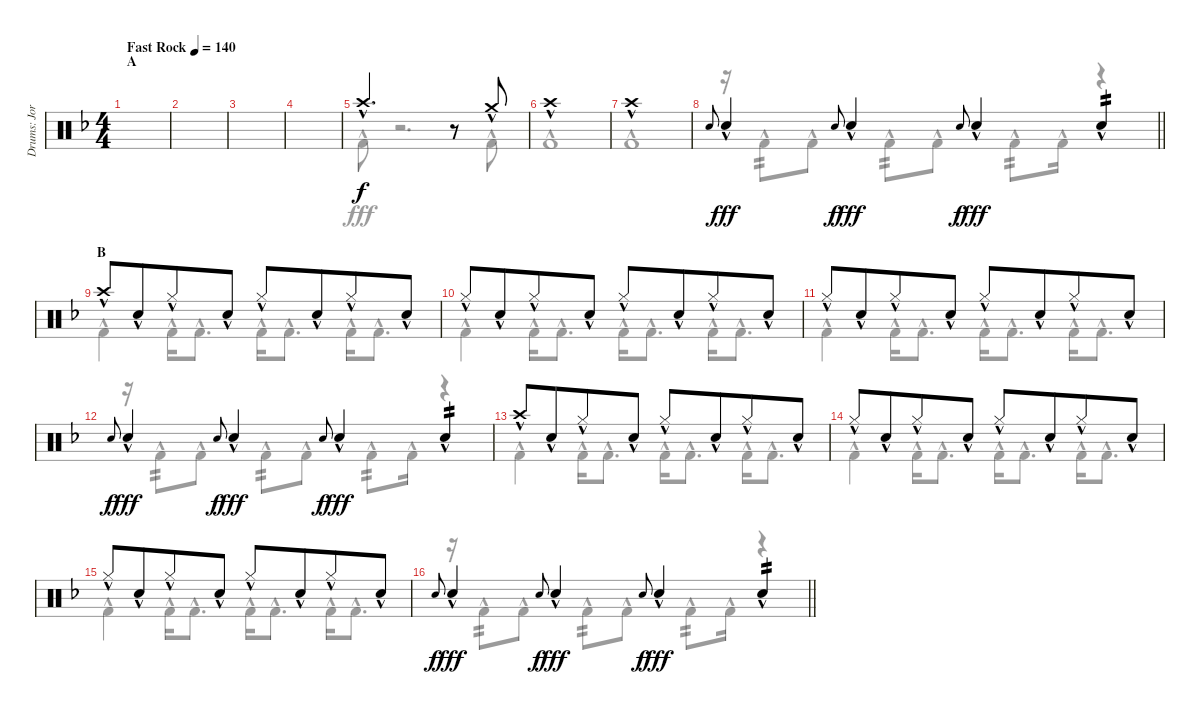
\track ("Drums: Jorg" "Drums: Jor") {instrument percussion}
\staff {score}
\articulation defaults
\voice
\ts (4 4)
\section ("" "A")
\tempo (140 "Fast Rock")
\clef neutral
\ks f
|
|
|
|
"Crash high (hit)"{hac}.2{d} r.8 "Crash medium (hit)"{hac}.8 |
"Crash high (hit)"{hac}.1 |
"Crash high (hit)"{hac}.1 |
\barLineRight lightlight "Snare (hit) 2".8{gr onbeat dy f} "Electric Snare (hit)"{hac}.4{dy fff} "Snare (hit) 2".8{gr onbeat dy f} "Electric Snare (hit)"{hac}.4{dy fff} "Snare (hit) 2".8{gr onbeat dy f} "Electric Snare (hit)"{hac}.4{dy fff} "Snare (hit) 2"{hac}.4{tp 2}
|
\section ("" "B")
"Crash high (hit)"{hac}.8 "Snare (hit) 2"{hac}.8{beam merge} "Hi-Hat (closed)"{hac}.8 "Snare (hit) 2"{hac}.8 "Hi-Hat (closed)"{hac}.8 "Snare (hit) 2"{hac}.8{beam merge} "Hi-Hat (closed)"{hac}.8 "Snare (hit) 2"{hac}.8 |
"Hi-Hat (closed)"{hac}.8 "Snare (hit) 2"{hac}.8{beam merge} "Hi-Hat (closed)"{hac}.8 "Snare (hit) 2"{hac}.8 "Hi-Hat (closed)"{hac}.8 "Snare (hit) 2"{hac}.8{beam merge} "Hi-Hat (closed)"{hac}.8 "Snare (hit) 2"{hac}.8 |
"Hi-Hat (closed)"{hac}.8 "Snare (hit) 2"{hac}.8{beam merge} "Hi-Hat (closed)"{hac}.8 "Snare (hit) 2"{hac}.8 "Hi-Hat (closed)"{hac}.8 "Snare (hit) 2"{hac}.8{beam merge} "Hi-Hat (closed)"{hac}.8 "Snare (hit) 2"{hac}.8 |
"Snare (hit) 2".8{gr onbeat dy f} "Electric Snare (hit)"{hac}.4{dy fff} "Snare (hit) 2".8{gr onbeat dy f} "Electric Snare (hit)"{hac}.4{dy fff} "Snare (hit) 2".8{gr onbeat dy f} "Electric Snare (hit)"{hac}.4{dy fff} "Snare (hit) 2"{hac}.4{tp 2} |
"Crash high (hit)"{hac}.8 "Snare (hit) 2"{hac}.8{beam merge} "Hi-Hat (closed)"{hac}.8 "Snare (hit) 2"{hac}.8 "Hi-Hat (closed)"{hac}.8 "Snare (hit) 2"{hac}.8{beam merge} "Hi-Hat (closed)"{hac}.8 "Snare (hit) 2"{hac}.8 |
"Hi-Hat (closed)"{hac}.8 "Snare (hit) 2"{hac}.8{beam merge} "Hi-Hat (closed)"{hac}.8 "Snare (hit) 2"{hac}.8 "Hi-Hat (closed)"{hac}.8 "Snare (hit) 2"{hac}.8{beam merge} "Hi-Hat (closed)"{hac}.8 "Snare (hit) 2"{hac}.8 |
"Hi-Hat (closed)"{hac}.8 "Snare (hit) 2"{hac}.8{beam merge} "Hi-Hat (closed)"{hac}.8 "Snare (hit) 2"{hac}.8 "Hi-Hat (closed)"{hac}.8 "Snare (hit) 2"{hac}.8{beam merge} "Hi-Hat (closed)"{hac}.8 "Snare (hit) 2"{hac}.8 |
\barLineRight lightlight "Snare (hit) 2".8{gr onbeat dy f} "Electric Snare (hit)"{hac}.4{dy fff} "Snare (hit) 2".8{gr onbeat dy f} "Electric Snare (hit)"{hac}.4{dy fff} "Snare (hit) 2".8{gr onbeat dy f} "Electric Snare (hit)"{hac}.4{dy fff} "Snare (hit) 2"{hac}.4{tp 2}
\voice
\clef neutral
\ottava regular
\simile none
\ks f
|
|
|
|
"Kick (hit) 2"{hac}.8 r.2{d} "Kick (hit) 2"{hac}.8 |
"Kick (hit) 2"{hac}.1 |
"Kick (hit) 2"{hac}.1 |
\barLineRight lightlight
r.16 "Kick (hit) 2"{hac}.8{tp 2} "Kick (hit) 2"{hac}.8 "Kick (hit) 2"{hac}.8{tp 2} "Kick (hit) 2"{hac}.8 "Kick (hit) 2"{hac}.8{tp 2} "Kick (hit) 2"{hac}.16 r.4 |
"Kick (hit) 2"{hac}.4 "Kick (hit) 2"{hac}.16 "Kick (hit) 2"{hac}.8{d} "Kick (hit) 2"{hac}.16 "Kick (hit) 2"{hac}.8{d} "Kick (hit) 2"{hac}.16 "Kick (hit) 2"{hac}.8{d} |
"Kick (hit) 2"{hac}.4 "Kick (hit) 2"{hac}.16 "Kick (hit) 2"{hac}.8{d} "Kick (hit) 2"{hac}.16 "Kick (hit) 2"{hac}.8{d} "Kick (hit) 2"{hac}.16 "Kick (hit) 2"{hac}.8{d} |
"Kick (hit) 2"{hac}.4 "Kick (hit) 2"{hac}.16 "Kick (hit) 2"{hac}.8{d} "Kick (hit) 2"{hac}.16 "Kick (hit) 2"{hac}.8{d} "Kick (hit) 2"{hac}.16 "Kick (hit) 2"{hac}.8{d} |
r.16 "Kick (hit) 2"{hac}.8{tp 2} "Kick (hit) 2"{hac}.8 "Kick (hit) 2"{hac}.8{tp 2} "Kick (hit) 2"{hac}.8 "Kick (hit) 2"{hac}.8{tp 2} "Kick (hit) 2"{hac}.16 r.4 |
"Kick (hit) 2"{hac}.4 "Kick (hit) 2"{hac}.16 "Kick (hit) 2"{hac}.8{d} "Kick (hit) 2"{hac}.16 "Kick (hit) 2"{hac}.8{d} "Kick (hit) 2"{hac}.16 "Kick (hit) 2"{hac}.8{d} |
"Kick (hit) 2"{hac}.4 "Kick (hit) 2"{hac}.16 "Kick (hit) 2"{hac}.8{d} "Kick (hit) 2"{hac}.16 "Kick (hit) 2"{hac}.8{d} "Kick (hit) 2"{hac}.16 "Kick (hit) 2"{hac}.8{d} |
"Kick (hit) 2"{hac}.4 "Kick (hit) 2"{hac}.16 "Kick (hit) 2"{hac}.8{d} "Kick (hit) 2"{hac}.16 "Kick (hit) 2"{hac}.8{d} "Kick (hit) 2"{hac}.16 "Kick (hit) 2"{hac}.8{d} |
\barLineRight lightlight
r.16 "Kick (hit) 2"{hac}.8{tp 2} "Kick (hit) 2"{hac}.8 "Kick (hit) 2"{hac}.8{tp 2} "Kick (hit) 2"{hac}.8 "Kick (hit) 2"{hac}.8{tp 2} "Kick (hit) 2"{hac}.16 r.4
